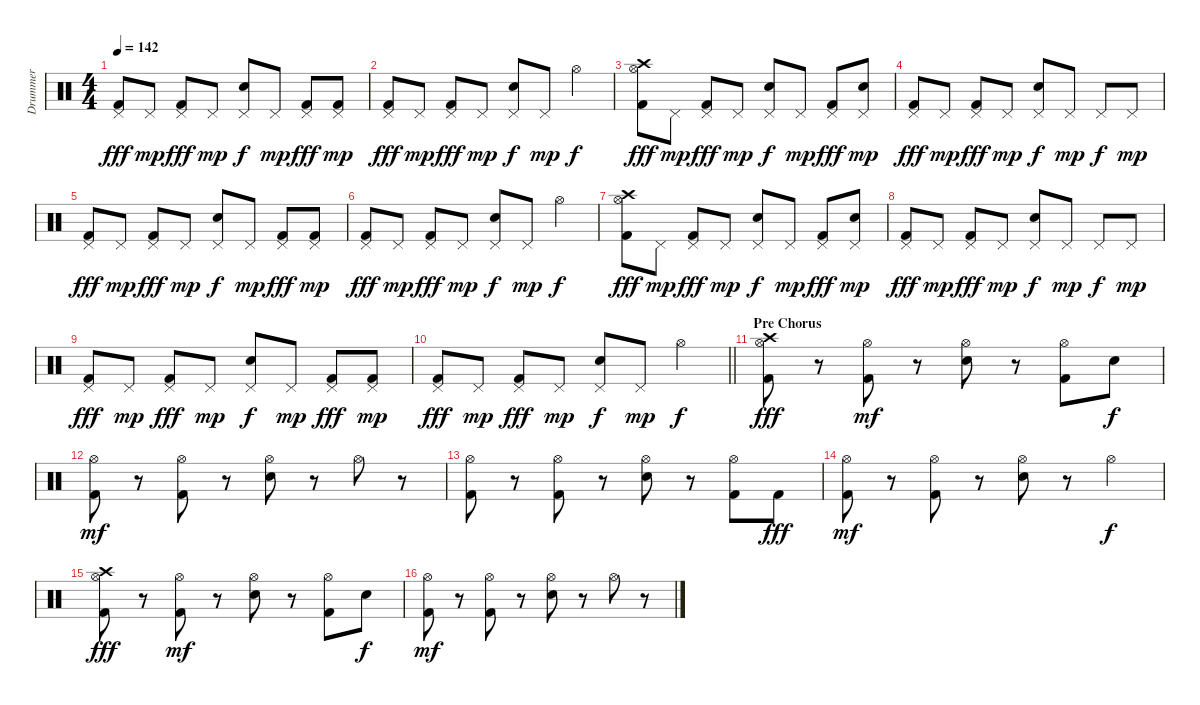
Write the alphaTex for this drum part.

\track ("Drummer" "Drummer") {instrument percussion}
\staff {score}
\articulation defaults
\ts (4 4)
\tempo 142
\clef neutral
\ks c
("Kick (hit) 2" "Pedal Hi-Hat (hit)").8{dy fff} "Pedal Hi-Hat (hit)".8{dy mp} ("Kick (hit) 2" "Pedal Hi-Hat (hit)").8{dy fff} "Pedal Hi-Hat (hit)".8{dy mp} ("Electric Snare (hit)" "Pedal Hi-Hat (hit)").8{dy f} "Pedal Hi-Hat (hit)".8{dy mp} ("Kick (hit) 2" "Pedal Hi-Hat (hit)").8{dy fff} ("Kick (hit) 2" "Pedal Hi-Hat (hit)").8{dy mp} |
("Kick (hit) 2" "Pedal Hi-Hat (hit)").8{dy fff} "Pedal Hi-Hat (hit)".8{dy mp} ("Kick (hit) 2" "Pedal Hi-Hat (hit)").8{dy fff} "Pedal Hi-Hat (hit)".8{dy mp} ("Electric Snare (hit)" "Pedal Hi-Hat (hit)").8{dy f} "Pedal Hi-Hat (hit)".8{dy mp} "Hi-Hat (open)".4{dy f} |
("Kick (hit) 2" "Hi-Hat (open)" "Crash high (hit)").8{dy fff} "Pedal Hi-Hat (hit)".8{dy mp} ("Kick (hit) 2" "Pedal Hi-Hat (hit)").8{dy fff} "Pedal Hi-Hat (hit)".8{dy mp} ("Electric Snare (hit)" "Pedal Hi-Hat (hit)").8{dy f} "Pedal Hi-Hat (hit)".8{dy mp} ("Kick (hit) 2" "Pedal Hi-Hat (hit)").8{dy fff} ("Electric Snare (hit)" "Pedal Hi-Hat (hit)").8{dy mp} |
("Kick (hit) 2" "Pedal Hi-Hat (hit)").8{dy fff} "Pedal Hi-Hat (hit)".8{dy mp} ("Kick (hit) 2" "Pedal Hi-Hat (hit)").8{dy fff} "Pedal Hi-Hat (hit)".8{dy mp} ("Electric Snare (hit)" "Pedal Hi-Hat (hit)").8{dy f} "Pedal Hi-Hat (hit)".8{dy mp} "Pedal Hi-Hat (hit)".8{dy f} "Pedal Hi-Hat (hit)".8{dy mp} |
("Kick (hit) 2" "Pedal Hi-Hat (hit)").8{dy fff} "Pedal Hi-Hat (hit)".8{dy mp} ("Kick (hit) 2" "Pedal Hi-Hat (hit)").8{dy fff} "Pedal Hi-Hat (hit)".8{dy mp} ("Electric Snare (hit)" "Pedal Hi-Hat (hit)").8{dy f} "Pedal Hi-Hat (hit)".8{dy mp} ("Kick (hit) 2" "Pedal Hi-Hat (hit)").8{dy fff} ("Kick (hit) 2" "Pedal Hi-Hat (hit)").8{dy mp} |
("Kick (hit) 2" "Pedal Hi-Hat (hit)").8{dy fff} "Pedal Hi-Hat (hit)".8{dy mp} ("Kick (hit) 2" "Pedal Hi-Hat (hit)").8{dy fff} "Pedal Hi-Hat (hit)".8{dy mp} ("Electric Snare (hit)" "Pedal Hi-Hat (hit)").8{dy f} "Pedal Hi-Hat (hit)".8{dy mp} "Hi-Hat (open)".4{dy f} |
("Kick (hit) 2" "Hi-Hat (open)" "Crash high (hit)").8{dy fff} "Pedal Hi-Hat (hit)".8{dy mp} ("Kick (hit) 2" "Pedal Hi-Hat (hit)").8{dy fff} "Pedal Hi-Hat (hit)".8{dy mp} ("Electric Snare (hit)" "Pedal Hi-Hat (hit)").8{dy f} "Pedal Hi-Hat (hit)".8{dy mp} ("Kick (hit) 2" "Pedal Hi-Hat (hit)").8{dy fff} ("Electric Snare (hit)" "Pedal Hi-Hat (hit)").8{dy mp} |
("Kick (hit) 2" "Pedal Hi-Hat (hit)").8{dy fff} "Pedal Hi-Hat (hit)".8{dy mp} ("Kick (hit) 2" "Pedal Hi-Hat (hit)").8{dy fff} "Pedal Hi-Hat (hit)".8{dy mp} ("Electric Snare (hit)" "Pedal Hi-Hat (hit)").8{dy f} "Pedal Hi-Hat (hit)".8{dy mp} "Pedal Hi-Hat (hit)".8{dy f} "Pedal Hi-Hat (hit)".8{dy mp} |
("Kick (hit) 2" "Pedal Hi-Hat (hit)").8{dy fff} "Pedal Hi-Hat (hit)".8{dy mp} ("Kick (hit) 2" "Pedal Hi-Hat (hit)").8{dy fff} "Pedal Hi-Hat (hit)".8{dy mp} ("Electric Snare (hit)" "Pedal Hi-Hat (hit)").8{dy f} "Pedal Hi-Hat (hit)".8{dy mp} ("Kick (hit) 2" "Pedal Hi-Hat (hit)").8{dy fff} ("Kick (hit) 2" "Pedal Hi-Hat (hit)").8{dy mp} |
\barLineRight lightlight
("Kick (hit) 2" "Pedal Hi-Hat (hit)").8{dy fff} "Pedal Hi-Hat (hit)".8{dy mp} ("Kick (hit) 2" "Pedal Hi-Hat (hit)").8{dy fff} "Pedal Hi-Hat (hit)".8{dy mp} ("Electric Snare (hit)" "Pedal Hi-Hat (hit)").8{dy f} "Pedal Hi-Hat (hit)".8{dy mp} "Hi-Hat (open)".4{dy f} |
\section ("" "Pre Chorus")
("Kick (hit) 2" "Hi-Hat (open)" "Crash high (hit)").8{dy fff} r.8 ("Kick (hit) 2" "Hi-Hat (open)").8{dy mf} r.8 ("Electric Snare (hit)" "Hi-Hat (open)").8 r.8 ("Kick (hit) 2" "Hi-Hat (open)").8 "Electric Snare (hit)".8{dy f} |
("Kick (hit) 2" "Hi-Hat (open)").8{dy mf} r.8 ("Kick (hit) 2" "Hi-Hat (open)").8 r.8 ("Electric Snare (hit)" "Hi-Hat (open)").8 r.8 "Hi-Hat (open)".8 r.8 |
("Kick (hit) 2" "Hi-Hat (open)").8 r.8 ("Kick (hit) 2" "Hi-Hat (open)").8 r.8 ("Electric Snare (hit)" "Hi-Hat (open)").8 r.8 ("Kick (hit) 2" "Hi-Hat (open)").8 "Kick (hit) 2".8{dy fff} |
("Kick (hit) 2" "Hi-Hat (open)").8{dy mf} r.8 ("Kick (hit) 2" "Hi-Hat (open)").8 r.8 ("Electric Snare (hit)" "Hi-Hat (open)").8 r.8 "Hi-Hat (open)".4{dy f} |
("Kick (hit) 2" "Hi-Hat (open)" "Crash high (hit)").8{dy fff} r.8 ("Kick (hit) 2" "Hi-Hat (open)").8{dy mf} r.8 ("Electric Snare (hit)" "Hi-Hat (open)").8 r.8 ("Kick (hit) 2" "Hi-Hat (open)").8 "Electric Snare (hit)".8{dy f} |
("Kick (hit) 2" "Hi-Hat (open)").8{dy mf} r.8 ("Kick (hit) 2" "Hi-Hat (open)").8 r.8 ("Electric Snare (hit)" "Hi-Hat (open)").8 r.8 "Hi-Hat (open)".8 r.8
